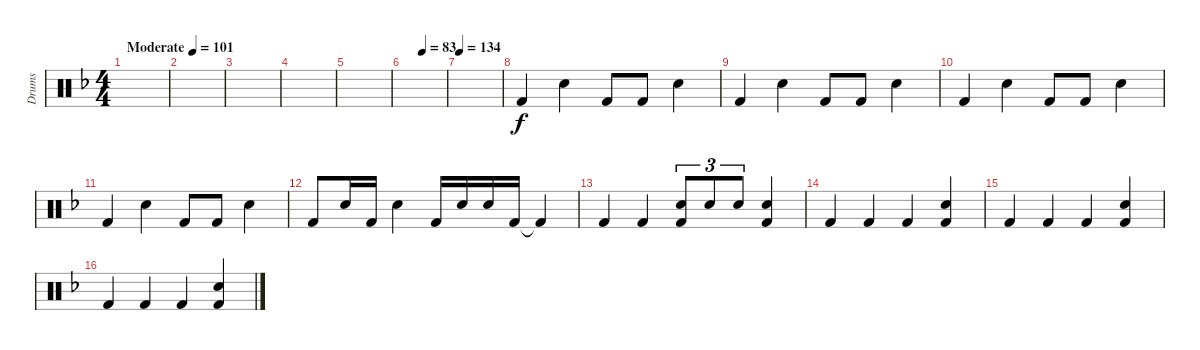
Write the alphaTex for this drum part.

\track ("Drums" "Drums") {instrument percussion}
\staff {score}
\articulation defaults
\ts (4 4)
\tempo (101 "Moderate")
\clef neutral
\ks f
|
|
|
|
|
\tempo (83 0.4375)
|
\tempo 134
|
"Kick (hit) 2".4 "Snare (hit) 2".4 "Kick (hit) 2".8 "Kick (hit) 2".8 "Snare (hit) 2".4 |
"Kick (hit) 2".4 "Snare (hit) 2".4 "Kick (hit) 2".8 "Kick (hit) 2".8 "Snare (hit) 2".4 |
"Kick (hit) 2".4 "Snare (hit) 2".4 "Kick (hit) 2".8 "Kick (hit) 2".8 "Snare (hit) 2".4 |
"Kick (hit) 2".4 "Snare (hit) 2".4 "Kick (hit) 2".8 "Kick (hit) 2".8 "Snare (hit) 2".4 |
"Kick (hit) 2".8 "Snare (hit) 2".16 "Kick (hit) 2".16 "Snare (hit) 2".4 "Kick (hit) 2".16 "Snare (hit) 2".16 "Snare (hit) 2".16 "Kick (hit) 2".16 "Kick (hit) 2"{t}.4 |
"Kick (hit) 2".4 "Kick (hit) 2".4 ("Snare (hit) 2" "Kick (hit) 2").8{tu (3 2)} "Snare (hit) 2".8{tu (3 2)} "Snare (hit) 2".8{tu (3 2)} ("Snare (hit) 2" "Kick (hit) 2").4 |
"Kick (hit) 2".4 "Kick (hit) 2".4 "Kick (hit) 2".4 ("Kick (hit) 2" "Snare (hit) 2").4 |
"Kick (hit) 2".4 "Kick (hit) 2".4 "Kick (hit) 2".4 ("Kick (hit) 2" "Snare (hit) 2").4 |
"Kick (hit) 2".4 "Kick (hit) 2".4 "Kick (hit) 2".4 ("Kick (hit) 2" "Snare (hit) 2").4
